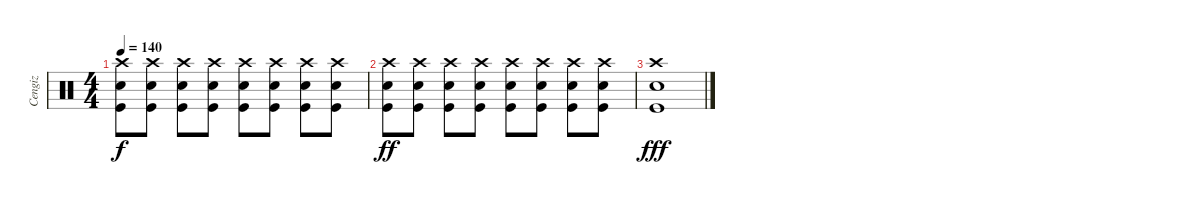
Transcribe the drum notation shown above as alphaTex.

\track ("Cengiz" "Cengiz") {instrument percussion}
\staff {score}
\articulation defaults
\ts (4 4)
\tempo 140
\clef neutral
\ks c
("Crash high (hit)" "Electric Snare (hit)" "Kick (hit)").8{dy f} ("Crash high (hit)" "Electric Snare (hit)" "Kick (hit)").8 ("Crash high (hit)" "Electric Snare (hit)" "Kick (hit)").8 ("Crash high (hit)" "Electric Snare (hit)" "Kick (hit)").8 ("Crash high (hit)" "Electric Snare (hit)" "Kick (hit)").8 ("Crash high (hit)" "Electric Snare (hit)" "Kick (hit)").8 ("Crash high (hit)" "Electric Snare (hit)" "Kick (hit)").8 ("Crash high (hit)" "Electric Snare (hit)" "Kick (hit)").8 |
("Crash high (hit)" "Electric Snare (hit)" "Kick (hit)").8{dy ff} ("Crash high (hit)" "Electric Snare (hit)" "Kick (hit)").8 ("Crash high (hit)" "Electric Snare (hit)" "Kick (hit)").8 ("Crash high (hit)" "Electric Snare (hit)" "Kick (hit)").8 ("Crash high (hit)" "Electric Snare (hit)" "Kick (hit)").8 ("Crash high (hit)" "Electric Snare (hit)" "Kick (hit)").8 ("Crash high (hit)" "Electric Snare (hit)" "Kick (hit)").8 ("Crash high (hit)" "Electric Snare (hit)" "Kick (hit)").8 |
("Crash high (hit)" "Electric Snare (hit)" "Kick (hit)").1{dy fff}
